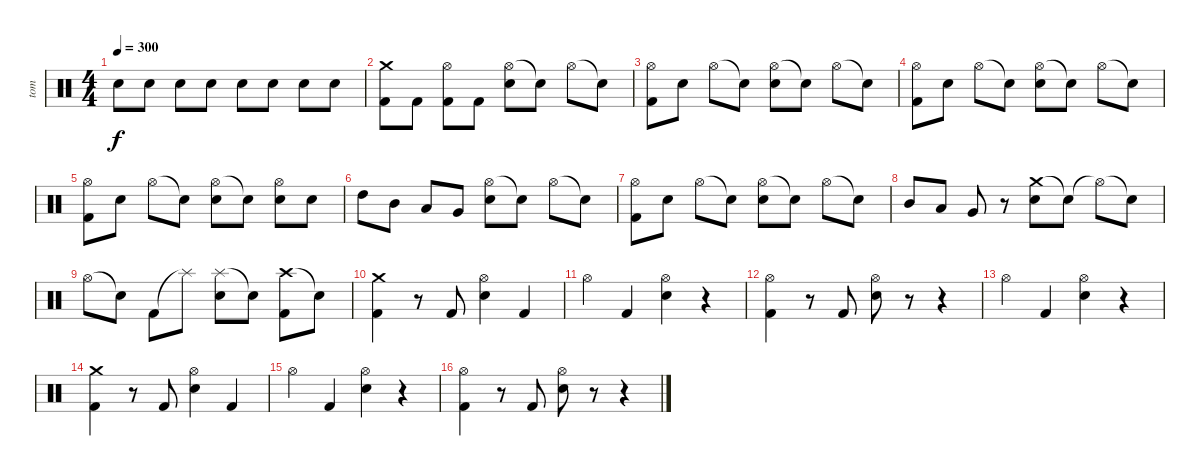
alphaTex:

\track ("tom" "tom") {instrument percussion}
\staff {score}
\articulation defaults
\ts (4 4)
\tempo 300
\clef neutral
\ks c "Electric Snare (hit)".8{dy f} "Electric Snare (hit)".8 "Electric Snare (hit)".8 "Electric Snare (hit)".8 "Electric Snare (hit)".8 "Electric Snare (hit)".8 "Electric Snare (hit)".8 "Electric Snare (hit)".8
|
("Crash medium (hit)" "Kick (hit) 2").8 "Kick (hit) 2".8 ("Hi-Hat (open)" "Kick (hit) 2").8 "Kick (hit) 2".8 ("Hi-Hat (open)" "Electric Snare (hit)").8 "Snare (hit)"{t}.8 "Hi-Hat (open)".8 "Snare (hit)"{t}.8 |
("Hi-Hat (open)" "Kick (hit) 2").8 "Electric Snare (hit)".8 "Hi-Hat (open)".8 "Snare (hit)"{t}.8 ("Hi-Hat (open)" "Electric Snare (hit)").8 "Snare (hit)"{t}.8 "Hi-Hat (open)".8 "Snare (hit)"{t}.8 |
("Hi-Hat (open)" "Kick (hit) 2").8 "Electric Snare (hit)".8 "Hi-Hat (open)".8 "Snare (hit)"{t}.8 ("Hi-Hat (open)" "Electric Snare (hit)").8 "Snare (hit)"{t}.8 "Hi-Hat (open)".8 "Snare (hit)"{t}.8 |
("Hi-Hat (open)" "Kick (hit) 2").8 "Electric Snare (hit)".8 "Hi-Hat (open)".8 "Snare (hit)"{t}.8 ("Hi-Hat (open)" "Electric Snare (hit)").8 "Snare (hit)"{t}.8 ("Hi-Hat (open)" "Electric Snare (hit)").8 "Electric Snare (hit)".8 |
"High Tom (hit)".8 "Mid Tom (hit)".8 "Low Tom (hit)".8 "Very Low Tom (hit)".8 ("Hi-Hat (open)" "Electric Snare (hit)").8 "Snare (hit)"{t}.8 "Hi-Hat (open)".8 "Snare (hit)"{t}.8 |
("Hi-Hat (open)" "Kick (hit) 2").8 "Electric Snare (hit)".8 "Hi-Hat (open)".8 "Snare (hit)"{t}.8 ("Hi-Hat (open)" "Electric Snare (hit)").8 "Snare (hit)"{t}.8 "Hi-Hat (open)".8 "Snare (hit)"{t}.8 |
"Mid Tom (hit)".8 "Low Tom (hit)".8 "Very Low Tom (hit)".8 r.8 ("Crash medium (hit)" "Electric Snare (hit)").8 "Snare (hit)"{t}.8 "Hi-Hat (open)"{t}.8 "Snare (hit)"{t}.8 |
"Hi-Hat (open)".8 "Snare (hit)"{t}.8 "Kick (hit) 2".8 "Splash (hit)"{t}.8 ("Splash (hit)" "Electric Snare (hit)").8 "Snare (hit)"{t}.8 ("Crash high (hit)" "Kick (hit) 2").8 "Snare (hit)"{t}.8 |
("Crash medium (hit)" "Kick (hit) 2").4 r.8 "Kick (hit) 2".8 ("Hi-Hat (open)" "Electric Snare (hit)").4 "Kick (hit) 2".4 |
"Hi-Hat (open)".4 "Kick (hit) 2".4 ("Hi-Hat (open)" "Electric Snare (hit)").4 r.4 |
("Hi-Hat (open)" "Kick (hit) 2").4 r.8 "Kick (hit) 2".8 ("Hi-Hat (open)" "Electric Snare (hit)").8 r.8 r.4 |
"Hi-Hat (open)".4 "Kick (hit) 2".4 ("Hi-Hat (open)" "Electric Snare (hit)").4 r.4 |
("Crash medium (hit)" "Kick (hit) 2").4 r.8 "Kick (hit) 2".8 ("Hi-Hat (open)" "Electric Snare (hit)").4 "Kick (hit) 2".4 |
"Hi-Hat (open)".4 "Kick (hit) 2".4 ("Hi-Hat (open)" "Electric Snare (hit)").4 r.4 |
("Hi-Hat (open)" "Kick (hit) 2").4 r.8 "Kick (hit) 2".8 ("Hi-Hat (open)" "Electric Snare (hit)").8 r.8 r.4
